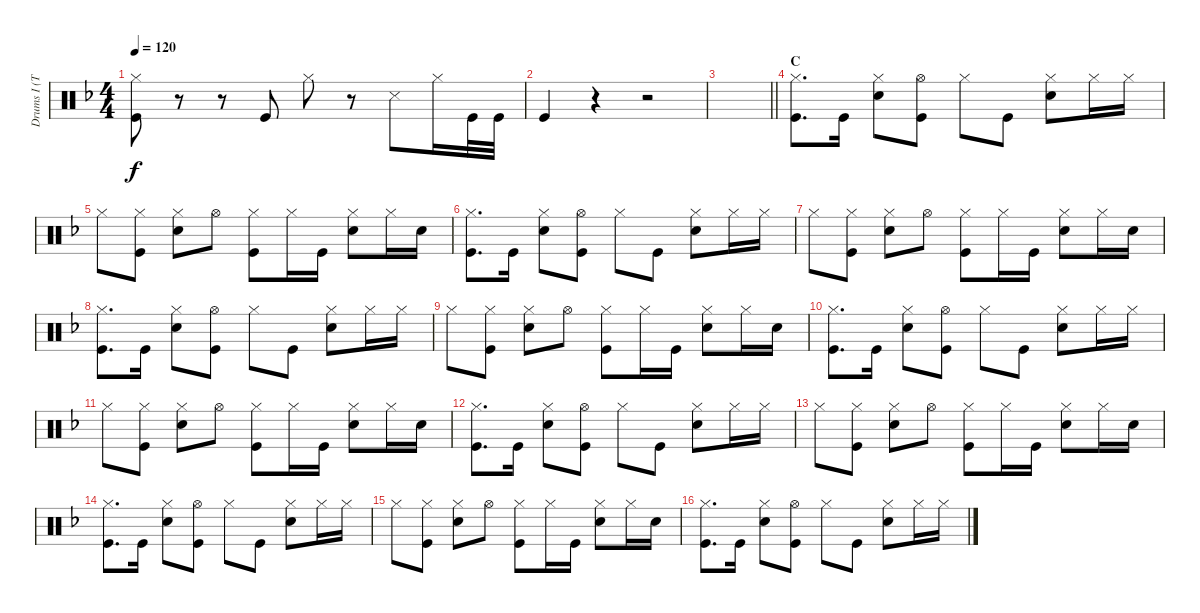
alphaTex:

\track ("Drums I (Tainaka Ritsu)" "Drums I (T") {instrument percussion}
\staff {score}
\articulation defaults
\ts (4 4)
\tempo 120
\clef neutral
\ks f
("Hi-Hat (closed)" "Kick (hit)").8{dy f} r.8 r.8 "Kick (hit)".8 "Hi-Hat (closed)".8 r.8 "Snare (side stick) 3".8 "Hi-Hat (closed)".16 "Kick (hit)".32 "Kick (hit)".32 |
"Kick (hit)".4 r.4 r.2 |
\barLineRight lightlight
|
\section ("" "C")
("Hi-Hat (closed)" "Kick (hit)").8{d} "Kick (hit)".16 ("Hi-Hat (closed)" "Snare (hit) 2").8 ("Hi-Hat (open)" "Kick (hit)").8 "Hi-Hat (closed)".8 "Kick (hit)".8 ("Hi-Hat (closed)" "Snare (hit) 2").8 "Hi-Hat (closed)".16 "Hi-Hat (closed)".16 |
"Hi-Hat (closed)".8 ("Hi-Hat (closed)" "Kick (hit)").8 ("Hi-Hat (closed)" "Snare (hit) 2").8 "Hi-Hat (open)".8 ("Hi-Hat (closed)" "Kick (hit)").8 "Hi-Hat (closed)".16 "Kick (hit)".16 ("Hi-Hat (closed)" "Snare (hit) 2").8 "Hi-Hat (closed)".16 "Snare (hit) 2".16 |
("Hi-Hat (closed)" "Kick (hit)").8{d} "Kick (hit)".16 ("Hi-Hat (closed)" "Snare (hit) 2").8 ("Hi-Hat (open)" "Kick (hit)").8 "Hi-Hat (closed)".8 "Kick (hit)".8 ("Hi-Hat (closed)" "Snare (hit) 2").8 "Hi-Hat (closed)".16 "Hi-Hat (closed)".16 |
"Hi-Hat (closed)".8 ("Hi-Hat (closed)" "Kick (hit)").8 ("Hi-Hat (closed)" "Snare (hit) 2").8 "Hi-Hat (open)".8 ("Hi-Hat (closed)" "Kick (hit)").8 "Hi-Hat (closed)".16 "Kick (hit)".16 ("Hi-Hat (closed)" "Snare (hit) 2").8 "Hi-Hat (closed)".16 "Snare (hit) 2".16 |
("Hi-Hat (closed)" "Kick (hit)").8{d} "Kick (hit)".16 ("Hi-Hat (closed)" "Snare (hit) 2").8 ("Hi-Hat (open)" "Kick (hit)").8 "Hi-Hat (closed)".8 "Kick (hit)".8 ("Hi-Hat (closed)" "Snare (hit) 2").8 "Hi-Hat (closed)".16 "Hi-Hat (closed)".16 |
"Hi-Hat (closed)".8 ("Hi-Hat (closed)" "Kick (hit)").8 ("Hi-Hat (closed)" "Snare (hit) 2").8 "Hi-Hat (open)".8 ("Hi-Hat (closed)" "Kick (hit)").8 "Hi-Hat (closed)".16 "Kick (hit)".16 ("Hi-Hat (closed)" "Snare (hit) 2").8 "Hi-Hat (closed)".16 "Snare (hit) 2".16 |
("Hi-Hat (closed)" "Kick (hit)").8{d} "Kick (hit)".16 ("Hi-Hat (closed)" "Snare (hit) 2").8 ("Hi-Hat (open)" "Kick (hit)").8 "Hi-Hat (closed)".8 "Kick (hit)".8 ("Hi-Hat (closed)" "Snare (hit) 2").8 "Hi-Hat (closed)".16 "Hi-Hat (closed)".16 |
"Hi-Hat (closed)".8 ("Hi-Hat (closed)" "Kick (hit)").8 ("Hi-Hat (closed)" "Snare (hit) 2").8 "Hi-Hat (open)".8 ("Hi-Hat (closed)" "Kick (hit)").8 "Hi-Hat (closed)".16 "Kick (hit)".16 ("Hi-Hat (closed)" "Snare (hit) 2").8 "Hi-Hat (closed)".16 "Snare (hit) 2".16 |
("Hi-Hat (closed)" "Kick (hit)").8{d} "Kick (hit)".16 ("Hi-Hat (closed)" "Snare (hit) 2").8 ("Hi-Hat (open)" "Kick (hit)").8 "Hi-Hat (closed)".8 "Kick (hit)".8 ("Hi-Hat (closed)" "Snare (hit) 2").8 "Hi-Hat (closed)".16 "Hi-Hat (closed)".16 |
"Hi-Hat (closed)".8 ("Hi-Hat (closed)" "Kick (hit)").8 ("Hi-Hat (closed)" "Snare (hit) 2").8 "Hi-Hat (open)".8 ("Hi-Hat (closed)" "Kick (hit)").8 "Hi-Hat (closed)".16 "Kick (hit)".16 ("Hi-Hat (closed)" "Snare (hit) 2").8 "Hi-Hat (closed)".16 "Snare (hit) 2".16 |
("Hi-Hat (closed)" "Kick (hit)").8{d} "Kick (hit)".16 ("Hi-Hat (closed)" "Snare (hit) 2").8 ("Hi-Hat (open)" "Kick (hit)").8 "Hi-Hat (closed)".8 "Kick (hit)".8 ("Hi-Hat (closed)" "Snare (hit) 2").8 "Hi-Hat (closed)".16 "Hi-Hat (closed)".16 |
"Hi-Hat (closed)".8 ("Hi-Hat (closed)" "Kick (hit)").8 ("Hi-Hat (closed)" "Snare (hit) 2").8 "Hi-Hat (open)".8 ("Hi-Hat (closed)" "Kick (hit)").8 "Hi-Hat (closed)".16 "Kick (hit)".16 ("Hi-Hat (closed)" "Snare (hit) 2").8 "Hi-Hat (closed)".16 "Snare (hit) 2".16 |
("Hi-Hat (closed)" "Kick (hit)").8{d} "Kick (hit)".16 ("Hi-Hat (closed)" "Snare (hit) 2").8 ("Hi-Hat (open)" "Kick (hit)").8 "Hi-Hat (closed)".8 "Kick (hit)".8 ("Hi-Hat (closed)" "Snare (hit) 2").8 "Hi-Hat (closed)".16 "Hi-Hat (closed)".16
